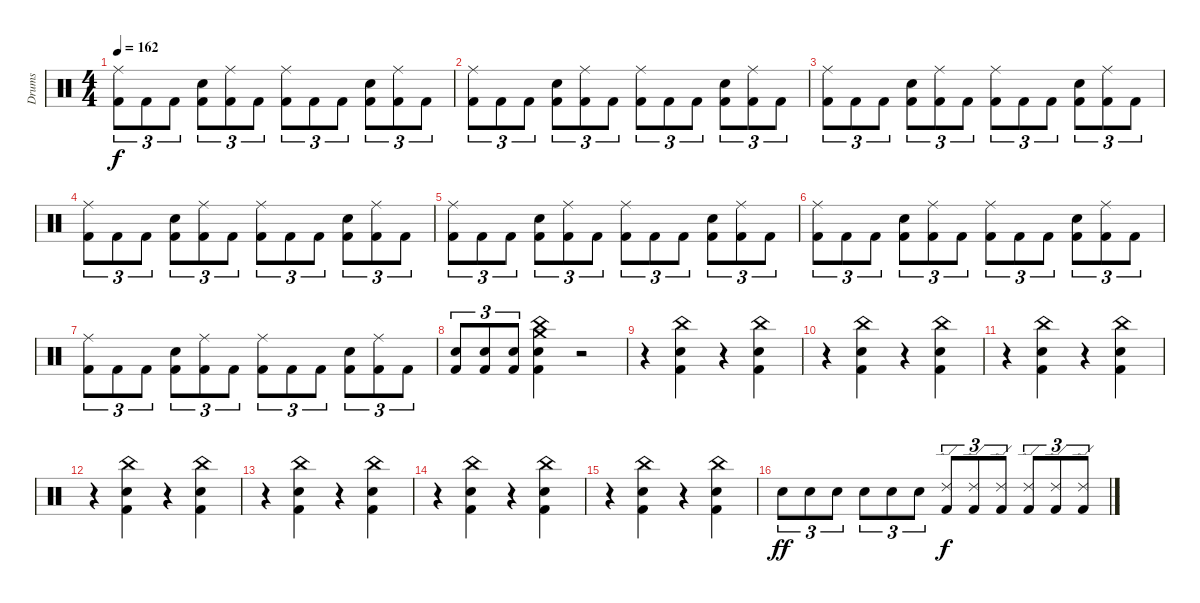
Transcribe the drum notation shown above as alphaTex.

\track ("Drums" "Drums") {instrument percussion}
\staff {score}
\articulation defaults
\ts (4 4)
\tempo 162
\clef neutral
\ks c
("Kick (hit) 2" "Ride (middle)").8{tu (3 2) dy f} "Kick (hit) 2".8{tu (3 2)} "Kick (hit) 2".8{tu (3 2)} ("Kick (hit) 2" "Electric Snare (hit)").8{tu (3 2)} ("Kick (hit) 2" "Ride (middle)").8{tu (3 2)} "Kick (hit) 2".8{tu (3 2)} ("Kick (hit) 2" "Ride (middle)").8{tu (3 2)} "Kick (hit) 2".8{tu (3 2)} "Kick (hit) 2".8{tu (3 2)} ("Kick (hit) 2" "Electric Snare (hit)").8{tu (3 2)} ("Kick (hit) 2" "Ride (middle)").8{tu (3 2)} "Kick (hit) 2".8{tu (3 2)} |
("Kick (hit) 2" "Ride (middle)").8{tu (3 2)} "Kick (hit) 2".8{tu (3 2)} "Kick (hit) 2".8{tu (3 2)} ("Kick (hit) 2" "Electric Snare (hit)").8{tu (3 2)} ("Kick (hit) 2" "Ride (middle)").8{tu (3 2)} "Kick (hit) 2".8{tu (3 2)} ("Kick (hit) 2" "Ride (middle)").8{tu (3 2)} "Kick (hit) 2".8{tu (3 2)} "Kick (hit) 2".8{tu (3 2)} ("Kick (hit) 2" "Electric Snare (hit)").8{tu (3 2)} ("Kick (hit) 2" "Ride (middle)").8{tu (3 2)} "Kick (hit) 2".8{tu (3 2)} |
("Kick (hit) 2" "Ride (middle)").8{tu (3 2)} "Kick (hit) 2".8{tu (3 2)} "Kick (hit) 2".8{tu (3 2)} ("Kick (hit) 2" "Electric Snare (hit)").8{tu (3 2)} ("Kick (hit) 2" "Ride (middle)").8{tu (3 2)} "Kick (hit) 2".8{tu (3 2)} ("Kick (hit) 2" "Ride (middle)").8{tu (3 2)} "Kick (hit) 2".8{tu (3 2)} "Kick (hit) 2".8{tu (3 2)} ("Kick (hit) 2" "Electric Snare (hit)").8{tu (3 2)} ("Kick (hit) 2" "Ride (middle)").8{tu (3 2)} "Kick (hit) 2".8{tu (3 2)} |
("Kick (hit) 2" "Ride (middle)").8{tu (3 2)} "Kick (hit) 2".8{tu (3 2)} "Kick (hit) 2".8{tu (3 2)} ("Kick (hit) 2" "Electric Snare (hit)").8{tu (3 2)} ("Kick (hit) 2" "Ride (middle)").8{tu (3 2)} "Kick (hit) 2".8{tu (3 2)} ("Kick (hit) 2" "Ride (middle)").8{tu (3 2)} "Kick (hit) 2".8{tu (3 2)} "Kick (hit) 2".8{tu (3 2)} ("Kick (hit) 2" "Electric Snare (hit)").8{tu (3 2)} ("Kick (hit) 2" "Ride (middle)").8{tu (3 2)} "Kick (hit) 2".8{tu (3 2)} |
("Kick (hit) 2" "Ride (middle)").8{tu (3 2)} "Kick (hit) 2".8{tu (3 2)} "Kick (hit) 2".8{tu (3 2)} ("Kick (hit) 2" "Electric Snare (hit)").8{tu (3 2)} ("Kick (hit) 2" "Ride (middle)").8{tu (3 2)} "Kick (hit) 2".8{tu (3 2)} ("Kick (hit) 2" "Ride (middle)").8{tu (3 2)} "Kick (hit) 2".8{tu (3 2)} "Kick (hit) 2".8{tu (3 2)} ("Kick (hit) 2" "Electric Snare (hit)").8{tu (3 2)} ("Kick (hit) 2" "Ride (middle)").8{tu (3 2)} "Kick (hit) 2".8{tu (3 2)} |
("Kick (hit) 2" "Ride (middle)").8{tu (3 2)} "Kick (hit) 2".8{tu (3 2)} "Kick (hit) 2".8{tu (3 2)} ("Kick (hit) 2" "Electric Snare (hit)").8{tu (3 2)} ("Kick (hit) 2" "Ride (middle)").8{tu (3 2)} "Kick (hit) 2".8{tu (3 2)} ("Kick (hit) 2" "Ride (middle)").8{tu (3 2)} "Kick (hit) 2".8{tu (3 2)} "Kick (hit) 2".8{tu (3 2)} ("Kick (hit) 2" "Electric Snare (hit)").8{tu (3 2)} ("Kick (hit) 2" "Ride (middle)").8{tu (3 2)} "Kick (hit) 2".8{tu (3 2)} |
("Kick (hit) 2" "Ride (middle)").8{tu (3 2)} "Kick (hit) 2".8{tu (3 2)} "Kick (hit) 2".8{tu (3 2)} ("Kick (hit) 2" "Electric Snare (hit)").8{tu (3 2)} ("Kick (hit) 2" "Ride (middle)").8{tu (3 2)} "Kick (hit) 2".8{tu (3 2)} ("Kick (hit) 2" "Ride (middle)").8{tu (3 2)} "Kick (hit) 2".8{tu (3 2)} "Kick (hit) 2".8{tu (3 2)} ("Kick (hit) 2" "Electric Snare (hit)").8{tu (3 2)} ("Kick (hit) 2" "Ride (middle)").8{tu (3 2)} "Kick (hit) 2".8{tu (3 2)} |
("Kick (hit) 2" "Electric Snare (hit)").8{tu (3 2)} ("Kick (hit) 2" "Electric Snare (hit)").8{tu (3 2)} ("Kick (hit) 2" "Electric Snare (hit)").8{tu (3 2)} ("Kick (hit) 2" "Electric Snare (hit)" "Crash medium (hit)" "China (hit)").4 r.2 |
r.4 ("Kick (hit) 2" "Electric Snare (hit)" "China (hit)").4 r.4 ("Kick (hit) 2" "Electric Snare (hit)" "China (hit)").4 |
r.4 ("Kick (hit) 2" "Electric Snare (hit)" "China (hit)").4 r.4 ("Kick (hit) 2" "Electric Snare (hit)" "China (hit)").4 |
r.4 ("Kick (hit) 2" "Electric Snare (hit)" "China (hit)").4 r.4 ("Kick (hit) 2" "Electric Snare (hit)" "China (hit)").4 |
r.4 ("Kick (hit) 2" "Electric Snare (hit)" "China (hit)").4 r.4 ("Kick (hit) 2" "Electric Snare (hit)" "China (hit)").4 |
r.4 ("Kick (hit) 2" "Electric Snare (hit)" "China (hit)").4 r.4 ("Kick (hit) 2" "Electric Snare (hit)" "China (hit)").4 |
r.4 ("Kick (hit) 2" "Electric Snare (hit)" "China (hit)").4 r.4 ("Kick (hit) 2" "Electric Snare (hit)" "China (hit)").4 |
r.4 ("Kick (hit) 2" "Electric Snare (hit)" "China (hit)").4 r.4 ("Kick (hit) 2" "Electric Snare (hit)" "China (hit)").4 |
"Electric Snare (hit)".8{tu (3 2) dy ff} "Electric Snare (hit)".8{tu (3 2)} "Electric Snare (hit)".8{tu (3 2)} "Electric Snare (hit)".8{tu (3 2)} "Electric Snare (hit)".8{tu (3 2)} "Electric Snare (hit)".8{tu (3 2)} ("Kick (hit) 2" "Ride (edge) 2").8{tu (3 2) dy f} ("Kick (hit) 2" "Ride (edge) 2").8{tu (3 2)} ("Kick (hit) 2" "Ride (edge) 2").8{tu (3 2)} ("Kick (hit) 2" "Ride (edge) 2").8{tu (3 2)} ("Kick (hit) 2" "Ride (edge) 2").8{tu (3 2)} ("Kick (hit) 2" "Ride (edge) 2").8{tu (3 2)}
